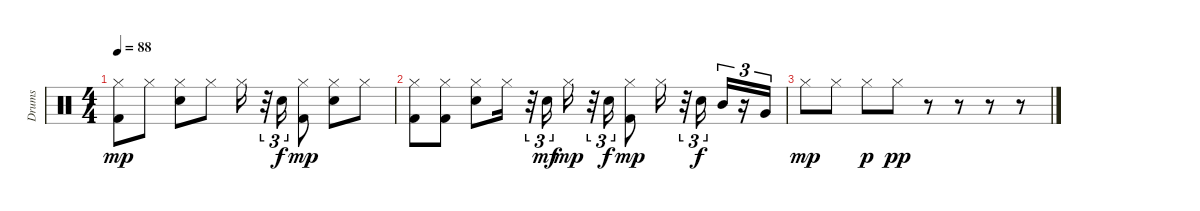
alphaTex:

\track ("Drums" "Drums") {instrument percussion}
\staff {score}
\articulation defaults
\ts (4 4)
\tempo 88
\clef neutral
\ks c
("Hi-Hat (closed)" "Kick (hit) 2").8{dy mp} "Hi-Hat (closed)".8 ("Hi-Hat (closed)" "Electric Snare (hit)").8 "Hi-Hat (closed)".8 "Hi-Hat (closed)".16 r.32{tu (3 2)} "Electric Snare (hit)".16{tu (3 2) dy f} ("Hi-Hat (closed)" "Kick (hit) 2").8{dy mp} ("Hi-Hat (closed)" "Electric Snare (hit)").8 "Hi-Hat (closed)".8 |
("Hi-Hat (closed)" "Kick (hit) 2").8 ("Hi-Hat (closed)" "Kick (hit) 2").8 ("Hi-Hat (closed)" "Electric Snare (hit)").8 "Hi-Hat (closed)".16 r.32{tu (3 2)} "Electric Snare (hit)".16{tu (3 2) dy mf} "Hi-Hat (closed)".16{dy mp} r.32{tu (3 2)} "Electric Snare (hit)".16{tu (3 2) dy f} ("Hi-Hat (closed)" "Kick (hit) 2").8{dy mp} "Hi-Hat (closed)".16 r.32{tu (3 2)} "Electric Snare (hit)".16{tu (3 2) dy f} "Mid Tom (hit)".16{tu (3 2)} r.16{tu (3 2)} "Very Low Tom (hit)".16{tu (3 2)} |
"Hi-Hat (closed)".8{dy mp} "Hi-Hat (closed)".8 "Hi-Hat (closed)".8{dy p} "Hi-Hat (closed)".8{dy pp} r.8 r.8 r.8 r.8
